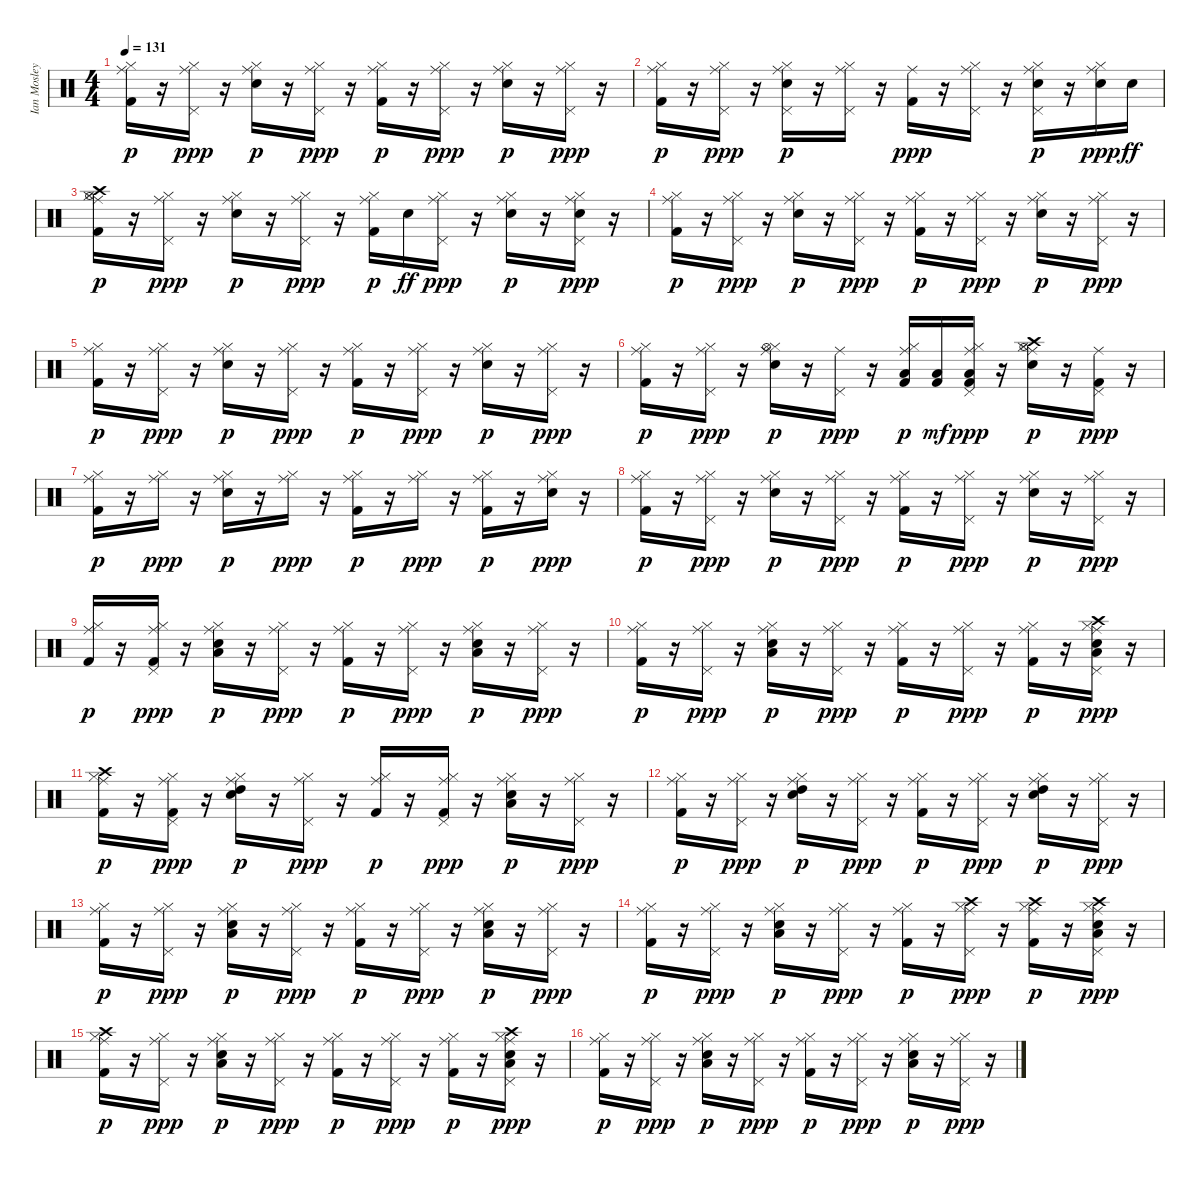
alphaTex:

\track ("Ian Mosley" "Ian Mosley") {instrument percussion}
\staff {score}
\articulation defaults
\ts (4 4)
\tempo 131
\clef neutral
\ks c
("Kick (hit) 2" "Hi-Hat (closed)" "Ride (middle)").16{dy p} r.16 ("Hi-Hat (closed)" "Pedal Hi-Hat (hit)" "Ride (middle)").16{dy ppp} r.16 ("Snare (hit) 2" "Hi-Hat (closed)" "Ride (middle)").16{dy p} r.16 ("Hi-Hat (closed)" "Pedal Hi-Hat (hit)" "Ride (middle)").16{dy ppp} r.16 ("Kick (hit) 2" "Hi-Hat (closed)" "Ride (middle)").16{dy p} r.16 ("Hi-Hat (closed)" "Pedal Hi-Hat (hit)" "Ride (middle)").16{dy ppp} r.16 ("Hi-Hat (closed)" "Snare (hit) 2" "Ride (middle)").16{dy p} r.16 ("Hi-Hat (closed)" "Pedal Hi-Hat (hit)" "Ride (middle)").16{dy ppp} r.16 |
("Kick (hit) 2" "Hi-Hat (closed)" "Ride (middle)").16{dy p} r.16 ("Hi-Hat (closed)" "Pedal Hi-Hat (hit)" "Ride (middle)").16{dy ppp} r.16 ("Snare (hit) 2" "Hi-Hat (closed)" "Pedal Hi-Hat (hit)" "Ride (middle)").16{dy p} r.16 ("Hi-Hat (closed)" "Pedal Hi-Hat (hit)" "Ride (middle)").16 r.16 ("Kick (hit) 2" "Ride (middle)").16{dy ppp} r.16 ("Hi-Hat (closed)" "Pedal Hi-Hat (hit)" "Ride (middle)").16 r.16 ("Hi-Hat (closed)" "Snare (hit) 2" "Pedal Hi-Hat (hit)" "Ride (middle)").16{dy p} r.16 ("Hi-Hat (closed)" "Snare (hit) 2" "Ride (middle)").16{dy ppp} "Snare (hit) 2".16{dy ff} |
("Kick (hit) 2" "Hi-Hat (closed)" "Crash high (hit)" "Hi-Hat (open)" "Ride (middle)").16{dy p} r.16 ("Hi-Hat (closed)" "Pedal Hi-Hat (hit)" "Ride (middle)").16{dy ppp} r.16 ("Snare (hit) 2" "Hi-Hat (closed)" "Ride (middle)").16{dy p} r.16 ("Hi-Hat (closed)" "Pedal Hi-Hat (hit)" "Ride (middle)").16{dy ppp} r.16 ("Kick (hit) 2" "Hi-Hat (closed)" "Ride (middle)").16{dy p} "Snare (hit) 2".16{dy ff} ("Hi-Hat (closed)" "Pedal Hi-Hat (hit)" "Ride (middle)").16{dy ppp} r.16 ("Hi-Hat (closed)" "Snare (hit) 2" "Ride (middle)").16{dy p} r.16 ("Hi-Hat (closed)" "Pedal Hi-Hat (hit)" "Snare (hit) 2" "Ride (middle)").16{dy ppp} r.16 |
("Kick (hit) 2" "Hi-Hat (closed)" "Ride (middle)").16{dy p} r.16 ("Hi-Hat (closed)" "Pedal Hi-Hat (hit)" "Ride (middle)").16{dy ppp} r.16 ("Snare (hit) 2" "Hi-Hat (closed)" "Ride (middle)").16{dy p} r.16 ("Hi-Hat (closed)" "Pedal Hi-Hat (hit)" "Ride (middle)").16{dy ppp} r.16 ("Kick (hit) 2" "Hi-Hat (closed)" "Ride (middle)").16{dy p} r.16 ("Hi-Hat (closed)" "Pedal Hi-Hat (hit)" "Ride (middle)").16{dy ppp} r.16 ("Hi-Hat (closed)" "Snare (hit) 2" "Ride (middle)").16{dy p} r.16 ("Hi-Hat (closed)" "Pedal Hi-Hat (hit)" "Ride (middle)").16{dy ppp} r.16 |
("Kick (hit) 2" "Hi-Hat (closed)" "Ride (middle)").16{dy p} r.16 ("Hi-Hat (closed)" "Pedal Hi-Hat (hit)" "Ride (middle)").16{dy ppp} r.16 ("Snare (hit) 2" "Hi-Hat (closed)" "Ride (middle)").16{dy p} r.16 ("Hi-Hat (closed)" "Pedal Hi-Hat (hit)" "Ride (middle)").16{dy ppp} r.16 ("Kick (hit) 2" "Hi-Hat (closed)" "Ride (middle)").16{dy p} r.16 ("Hi-Hat (closed)" "Pedal Hi-Hat (hit)" "Ride (middle)").16{dy ppp} r.16 ("Hi-Hat (closed)" "Snare (hit) 2" "Ride (middle)").16{dy p} r.16 ("Hi-Hat (closed)" "Pedal Hi-Hat (hit)" "Ride (middle)").16{dy ppp} r.16 |
("Kick (hit) 2" "Hi-Hat (closed)" "Ride (middle)").16{dy p} r.16 ("Hi-Hat (closed)" "Pedal Hi-Hat (hit)" "Ride (middle)").16{dy ppp} r.16 ("Snare (hit) 2" "Hi-Hat (closed)" "Hi-Hat (open)" "Ride (middle)").16{dy p} r.16 ("Pedal Hi-Hat (hit)" "Ride (middle)").16{dy ppp} r.16 ("Hi-Hat (closed)" "Low Tom (hit)" "Kick (hit) 2" "Ride (middle)").16{dy p} ("Kick (hit) 2" "Low Tom (hit)").16{dy mf} ("Hi-Hat (closed)" "Pedal Hi-Hat (hit)" "Low Tom (hit)" "Kick (hit) 2" "Ride (middle)").16{dy ppp} r.16 ("Hi-Hat (closed)" "Snare (hit) 2" "Crash high (hit)" "Hi-Hat (open)" "Ride (middle)").16{dy p} r.16 ("Pedal Hi-Hat (hit)" "Kick (hit) 2" "Ride (middle)").16{dy ppp} r.16 |
("Kick (hit) 2" "Hi-Hat (closed)" "Ride (middle)").16{dy p} r.16 ("Hi-Hat (closed)" "Ride (middle)").16{dy ppp} r.16 ("Snare (hit) 2" "Hi-Hat (closed)" "Ride (middle)").16{dy p} r.16 ("Hi-Hat (closed)" "Ride (middle)").16{dy ppp} r.16 ("Hi-Hat (closed)" "Kick (hit) 2" "Ride (middle)").16{dy p} r.16 ("Hi-Hat (closed)" "Ride (middle)").16{dy ppp} r.16 ("Kick (hit) 2" "Hi-Hat (closed)" "Ride (middle)").16{dy p} r.16 ("Snare (hit) 2" "Hi-Hat (closed)" "Ride (middle)").16{dy ppp} r.16 |
("Kick (hit) 2" "Hi-Hat (closed)" "Ride (middle)").16{dy p} r.16 ("Hi-Hat (closed)" "Pedal Hi-Hat (hit)" "Ride (middle)").16{dy ppp} r.16 ("Snare (hit) 2" "Hi-Hat (closed)" "Ride (middle)").16{dy p} r.16 ("Hi-Hat (closed)" "Pedal Hi-Hat (hit)" "Ride (middle)").16{dy ppp} r.16 ("Kick (hit) 2" "Hi-Hat (closed)" "Ride (middle)").16{dy p} r.16 ("Hi-Hat (closed)" "Pedal Hi-Hat (hit)" "Ride (middle)").16{dy ppp} r.16 ("Hi-Hat (closed)" "Snare (hit) 2" "Ride (middle)").16{dy p} r.16 ("Hi-Hat (closed)" "Pedal Hi-Hat (hit)" "Ride (middle)").16{dy ppp} r.16 |
("Kick (hit) 2" "Hi-Hat (closed)" "Ride (middle)").16{dy p} r.16 ("Hi-Hat (closed)" "Pedal Hi-Hat (hit)" "Kick (hit) 2" "Ride (middle)").16{dy ppp} r.16 ("Snare (hit) 2" "Hi-Hat (closed)" "Low Floor Tom (hit)" "Ride (middle)").16{dy p} r.16 ("Hi-Hat (closed)" "Pedal Hi-Hat (hit)" "Ride (middle)").16{dy ppp} r.16 ("Kick (hit) 2" "Hi-Hat (closed)" "Ride (middle)").16{dy p} r.16 ("Hi-Hat (closed)" "Pedal Hi-Hat (hit)" "Ride (middle)").16{dy ppp} r.16 ("Hi-Hat (closed)" "Snare (hit) 2" "Low Floor Tom (hit)" "Ride (middle)").16{dy p} r.16 ("Hi-Hat (closed)" "Pedal Hi-Hat (hit)" "Ride (middle)").16{dy ppp} r.16 |
("Kick (hit) 2" "Hi-Hat (closed)" "Ride (middle)").16{dy p} r.16 ("Hi-Hat (closed)" "Pedal Hi-Hat (hit)" "Ride (middle)").16{dy ppp} r.16 ("Snare (hit) 2" "Hi-Hat (closed)" "Low Floor Tom (hit)" "Ride (middle)").16{dy p} r.16 ("Hi-Hat (closed)" "Pedal Hi-Hat (hit)" "Ride (middle)").16{dy ppp} r.16 ("Kick (hit) 2" "Hi-Hat (closed)" "Ride (middle)").16{dy p} r.16 ("Hi-Hat (closed)" "Pedal Hi-Hat (hit)" "Ride (middle)").16{dy ppp} r.16 ("Hi-Hat (closed)" "Kick (hit) 2" "Ride (middle)").16{dy p} r.16 ("Hi-Hat (closed)" "Pedal Hi-Hat (hit)" "Snare (hit) 2" "Low Floor Tom (hit)" "Crash high (hit)" "Ride (middle)").16{dy ppp} r.16 |
("Kick (hit) 2" "Hi-Hat (closed)" "Crash high (hit)" "Ride (middle)").16{dy p} r.16 ("Hi-Hat (closed)" "Pedal Hi-Hat (hit)" "Kick (hit) 2" "Ride (middle)").16{dy ppp} r.16 ("Snare (hit) 2" "Hi-Hat (closed)" "High Tom (hit)" "Ride (middle)").16{dy p} r.16 ("Hi-Hat (closed)" "Pedal Hi-Hat (hit)" "Ride (middle)").16{dy ppp} r.16 ("Kick (hit) 2" "Hi-Hat (closed)" "Ride (middle)").16{dy p} r.16 ("Hi-Hat (closed)" "Pedal Hi-Hat (hit)" "Kick (hit) 2" "Ride (middle)").16{dy ppp} r.16 ("Hi-Hat (closed)" "Snare (hit) 2" "Low Tom (hit)" "Ride (middle)").16{dy p} r.16 ("Hi-Hat (closed)" "Pedal Hi-Hat (hit)" "Ride (middle)").16{dy ppp} r.16 |
("Kick (hit) 2" "Hi-Hat (closed)" "Ride (middle)").16{dy p} r.16 ("Hi-Hat (closed)" "Pedal Hi-Hat (hit)" "Ride (middle)").16{dy ppp} r.16 ("Snare (hit) 2" "Hi-Hat (closed)" "High Tom (hit)" "Ride (middle)").16{dy p} r.16 ("Hi-Hat (closed)" "Pedal Hi-Hat (hit)" "Ride (middle)").16{dy ppp} r.16 ("Kick (hit) 2" "Hi-Hat (closed)" "Ride (middle)").16{dy p} r.16 ("Hi-Hat (closed)" "Pedal Hi-Hat (hit)" "Ride (middle)").16{dy ppp} r.16 ("Hi-Hat (closed)" "Snare (hit) 2" "High Tom (hit)" "Ride (middle)").16{dy p} r.16 ("Hi-Hat (closed)" "Pedal Hi-Hat (hit)" "Ride (middle)").16{dy ppp} r.16 |
("Kick (hit) 2" "Hi-Hat (closed)" "Ride (middle)").16{dy p} r.16 ("Hi-Hat (closed)" "Pedal Hi-Hat (hit)" "Ride (middle)").16{dy ppp} r.16 ("Snare (hit) 2" "Hi-Hat (closed)" "Low Tom (hit)" "Ride (middle)").16{dy p} r.16 ("Hi-Hat (closed)" "Pedal Hi-Hat (hit)" "Ride (middle)").16{dy ppp} r.16 ("Kick (hit) 2" "Hi-Hat (closed)" "Ride (middle)").16{dy p} r.16 ("Hi-Hat (closed)" "Pedal Hi-Hat (hit)" "Ride (middle)").16{dy ppp} r.16 ("Hi-Hat (closed)" "Snare (hit) 2" "Low Tom (hit)" "Ride (middle)").16{dy p} r.16 ("Hi-Hat (closed)" "Pedal Hi-Hat (hit)" "Ride (middle)").16{dy ppp} r.16 |
("Kick (hit) 2" "Hi-Hat (closed)" "Ride (middle)").16{dy p} r.16 ("Hi-Hat (closed)" "Pedal Hi-Hat (hit)" "Ride (middle)").16{dy ppp} r.16 ("Snare (hit) 2" "Hi-Hat (closed)" "Low Tom (hit)" "Ride (middle)").16{dy p} r.16 ("Hi-Hat (closed)" "Pedal Hi-Hat (hit)" "Ride (middle)").16{dy ppp} r.16 ("Kick (hit) 2" "Hi-Hat (closed)" "Ride (middle)").16{dy p} r.16 ("Hi-Hat (closed)" "Pedal Hi-Hat (hit)" "Crash high (hit)" "Ride (middle)").16{dy ppp} r.16 ("Hi-Hat (closed)" "Kick (hit) 2" "Crash high (hit)" "Ride (middle)").16{dy p} r.16 ("Hi-Hat (closed)" "Pedal Hi-Hat (hit)" "Snare (hit) 2" "Low Tom (hit)" "Crash high (hit)" "Ride (middle)").16{dy ppp} r.16 |
("Kick (hit) 2" "Hi-Hat (closed)" "Crash high (hit)" "Ride (middle)").16{dy p} r.16 ("Hi-Hat (closed)" "Pedal Hi-Hat (hit)" "Ride (middle)").16{dy ppp} r.16 ("Snare (hit) 2" "Hi-Hat (closed)" "Low Floor Tom (hit)" "Ride (middle)").16{dy p} r.16 ("Hi-Hat (closed)" "Pedal Hi-Hat (hit)" "Ride (middle)").16{dy ppp} r.16 ("Kick (hit) 2" "Hi-Hat (closed)" "Ride (middle)").16{dy p} r.16 ("Hi-Hat (closed)" "Pedal Hi-Hat (hit)" "Ride (middle)").16{dy ppp} r.16 ("Hi-Hat (closed)" "Kick (hit) 2" "Ride (middle)").16{dy p} r.16 ("Hi-Hat (closed)" "Pedal Hi-Hat (hit)" "Snare (hit) 2" "Low Floor Tom (hit)" "Crash high (hit)" "Ride (middle)").16{dy ppp} r.16 |
("Kick (hit) 2" "Hi-Hat (closed)" "Ride (middle)").16{dy p} r.16 ("Hi-Hat (closed)" "Pedal Hi-Hat (hit)" "Ride (middle)").16{dy ppp} r.16 ("Snare (hit) 2" "Hi-Hat (closed)" "Low Floor Tom (hit)" "Ride (middle)").16{dy p} r.16 ("Hi-Hat (closed)" "Pedal Hi-Hat (hit)" "Ride (middle)").16{dy ppp} r.16 ("Kick (hit) 2" "Hi-Hat (closed)" "Ride (middle)").16{dy p} r.16 ("Hi-Hat (closed)" "Pedal Hi-Hat (hit)" "Ride (middle)").16{dy ppp} r.16 ("Hi-Hat (closed)" "Snare (hit) 2" "Low Floor Tom (hit)" "Ride (middle)").16{dy p} r.16 ("Hi-Hat (closed)" "Pedal Hi-Hat (hit)" "Ride (middle)").16{dy ppp} r.16
